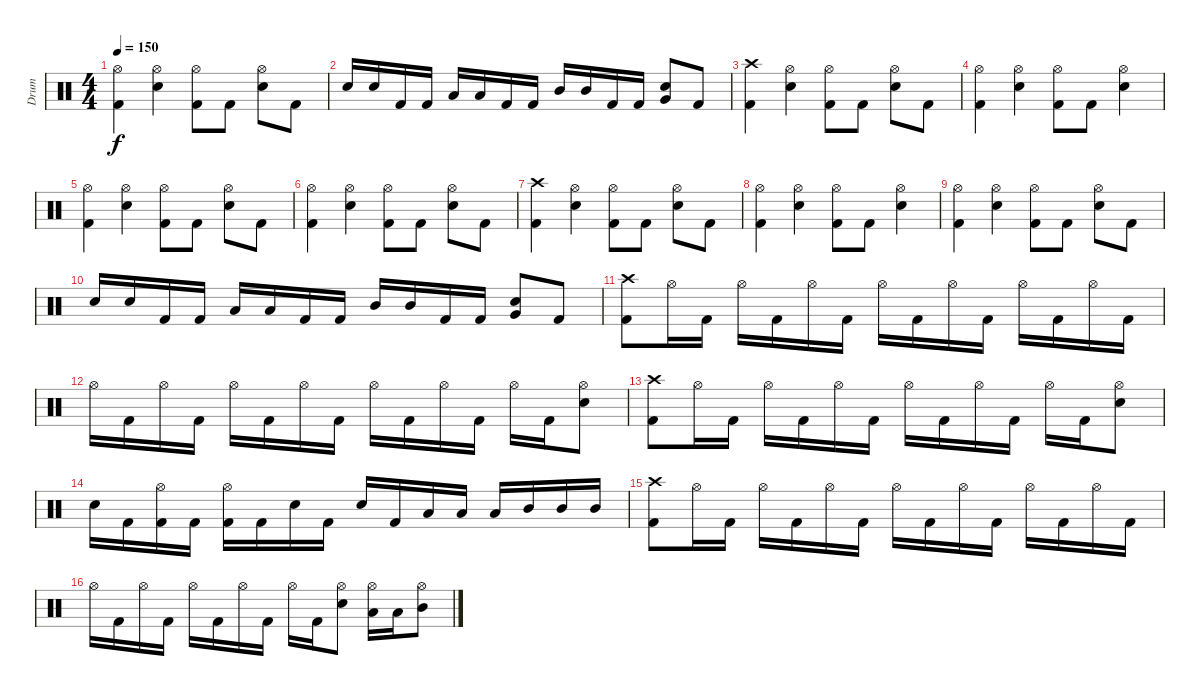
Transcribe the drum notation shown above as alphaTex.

\track ("Drum" "Drum") {instrument percussion}
\staff {score}
\articulation defaults
\ts (4 4)
\tempo 150
\clef neutral
\ks c
("Hi-Hat (open)" "Kick (hit) 2").4{dy f} ("Hi-Hat (open)" "Electric Snare (hit)").4 ("Hi-Hat (open)" "Kick (hit) 2").8 "Kick (hit) 2".8 ("Hi-Hat (open)" "Electric Snare (hit)").8 "Kick (hit) 2".8 |
"Electric Snare (hit)".16 "Electric Snare (hit)".16 "Kick (hit) 2".16 "Kick (hit) 2".16 "Low Tom (hit)".16 "Low Tom (hit)".16 "Kick (hit) 2".16 "Kick (hit) 2".16 "Mid Tom (hit)".16 "Mid Tom (hit)".16 "Kick (hit) 2".16 "Kick (hit) 2".16 ("Electric Snare (hit)" "Very Low Tom (hit)").8 "Kick (hit) 2".8 |
("Crash high (hit)" "Kick (hit) 2").4 ("Hi-Hat (open)" "Electric Snare (hit)").4 ("Hi-Hat (open)" "Kick (hit) 2").8 "Kick (hit) 2".8 ("Hi-Hat (open)" "Electric Snare (hit)").8 "Kick (hit) 2".8 |
("Hi-Hat (open)" "Kick (hit) 2").4 ("Hi-Hat (open)" "Electric Snare (hit)").4 ("Hi-Hat (open)" "Kick (hit) 2").8 "Kick (hit) 2".8 ("Hi-Hat (open)" "Electric Snare (hit)").4 |
("Hi-Hat (open)" "Kick (hit) 2").4 ("Hi-Hat (open)" "Electric Snare (hit)").4 ("Hi-Hat (open)" "Kick (hit) 2").8 "Kick (hit) 2".8 ("Hi-Hat (open)" "Electric Snare (hit)").8 "Kick (hit) 2".8 |
("Hi-Hat (open)" "Kick (hit) 2").4 ("Hi-Hat (open)" "Electric Snare (hit)").4 ("Hi-Hat (open)" "Kick (hit) 2").8 "Kick (hit) 2".8 ("Hi-Hat (open)" "Electric Snare (hit)").8 "Kick (hit) 2".8 |
("Crash high (hit)" "Kick (hit) 2").4 ("Hi-Hat (open)" "Electric Snare (hit)").4 ("Hi-Hat (open)" "Kick (hit) 2").8 "Kick (hit) 2".8 ("Hi-Hat (open)" "Electric Snare (hit)").8 "Kick (hit) 2".8 |
("Hi-Hat (open)" "Kick (hit) 2").4 ("Hi-Hat (open)" "Electric Snare (hit)").4 ("Hi-Hat (open)" "Kick (hit) 2").8 "Kick (hit) 2".8 ("Hi-Hat (open)" "Electric Snare (hit)").4 |
("Hi-Hat (open)" "Kick (hit) 2").4 ("Hi-Hat (open)" "Electric Snare (hit)").4 ("Hi-Hat (open)" "Kick (hit) 2").8 "Kick (hit) 2".8 ("Hi-Hat (open)" "Electric Snare (hit)").8 "Kick (hit) 2".8 |
"Electric Snare (hit)".16 "Electric Snare (hit)".16 "Kick (hit) 2".16 "Kick (hit) 2".16 "Low Tom (hit)".16 "Low Tom (hit)".16 "Kick (hit) 2".16 "Kick (hit) 2".16 "Mid Tom (hit)".16 "Mid Tom (hit)".16 "Kick (hit) 2".16 "Kick (hit) 2".16 ("Electric Snare (hit)" "Very Low Tom (hit)").8 "Kick (hit) 2".8 |
("Crash high (hit)" "Kick (hit) 2").8 "Hi-Hat (open)".16 "Kick (hit) 2".16 "Hi-Hat (open)".16 "Kick (hit) 2".16 "Hi-Hat (open)".16 "Kick (hit) 2".16 "Hi-Hat (open)".16 "Kick (hit) 2".16 "Hi-Hat (open)".16 "Kick (hit) 2".16 "Hi-Hat (open)".16 "Kick (hit) 2".16 "Hi-Hat (open)".16 "Kick (hit) 2".16 |
"Hi-Hat (open)".16 "Kick (hit) 2".16 "Hi-Hat (open)".16 "Kick (hit) 2".16 "Hi-Hat (open)".16 "Kick (hit) 2".16 "Hi-Hat (open)".16 "Kick (hit) 2".16 "Hi-Hat (open)".16 "Kick (hit) 2".16 "Hi-Hat (open)".16 "Kick (hit) 2".16 "Hi-Hat (open)".16 "Kick (hit) 2".16 ("Electric Snare (hit)" "Hi-Hat (open)").8 |
("Crash high (hit)" "Kick (hit) 2").8 "Hi-Hat (open)".16 "Kick (hit) 2".16 "Hi-Hat (open)".16 "Kick (hit) 2".16 "Hi-Hat (open)".16 "Kick (hit) 2".16 "Hi-Hat (open)".16 "Kick (hit) 2".16 "Hi-Hat (open)".16 "Kick (hit) 2".16 "Hi-Hat (open)".16 "Kick (hit) 2".16 ("Electric Snare (hit)" "Hi-Hat (open)").8 |
"Electric Snare (hit)".16 "Kick (hit) 2".16 ("Hi-Hat (open)" "Kick (hit) 2").16 "Kick (hit) 2".16 ("Hi-Hat (open)" "Kick (hit) 2").16 "Kick (hit) 2".16 "Electric Snare (hit)".16 "Kick (hit) 2".16 "Electric Snare (hit)".16 "Kick (hit) 2".16 "Low Tom (hit)".16 "Low Tom (hit)".16 "Low Tom (hit)".16 "Mid Tom (hit)".16 "Mid Tom (hit)".16 "Mid Tom (hit)".16 |
("Crash high (hit)" "Kick (hit) 2").8 "Hi-Hat (open)".16 "Kick (hit) 2".16 "Hi-Hat (open)".16 "Kick (hit) 2".16 "Hi-Hat (open)".16 "Kick (hit) 2".16 "Hi-Hat (open)".16 "Kick (hit) 2".16 "Hi-Hat (open)".16 "Kick (hit) 2".16 "Hi-Hat (open)".16 "Kick (hit) 2".16 "Hi-Hat (open)".16 "Kick (hit) 2".16 |
"Hi-Hat (open)".16 "Kick (hit) 2".16 "Hi-Hat (open)".16 "Kick (hit) 2".16 "Hi-Hat (open)".16 "Kick (hit) 2".16 "Hi-Hat (open)".16 "Kick (hit) 2".16 "Hi-Hat (open)".16 "Kick (hit) 2".16 ("Electric Snare (hit)" "Hi-Hat (open)").8 ("Low Tom (hit)" "Hi-Hat (open)").16 "Low Tom (hit)".16 ("Mid Tom (hit)" "Hi-Hat (open)").8
